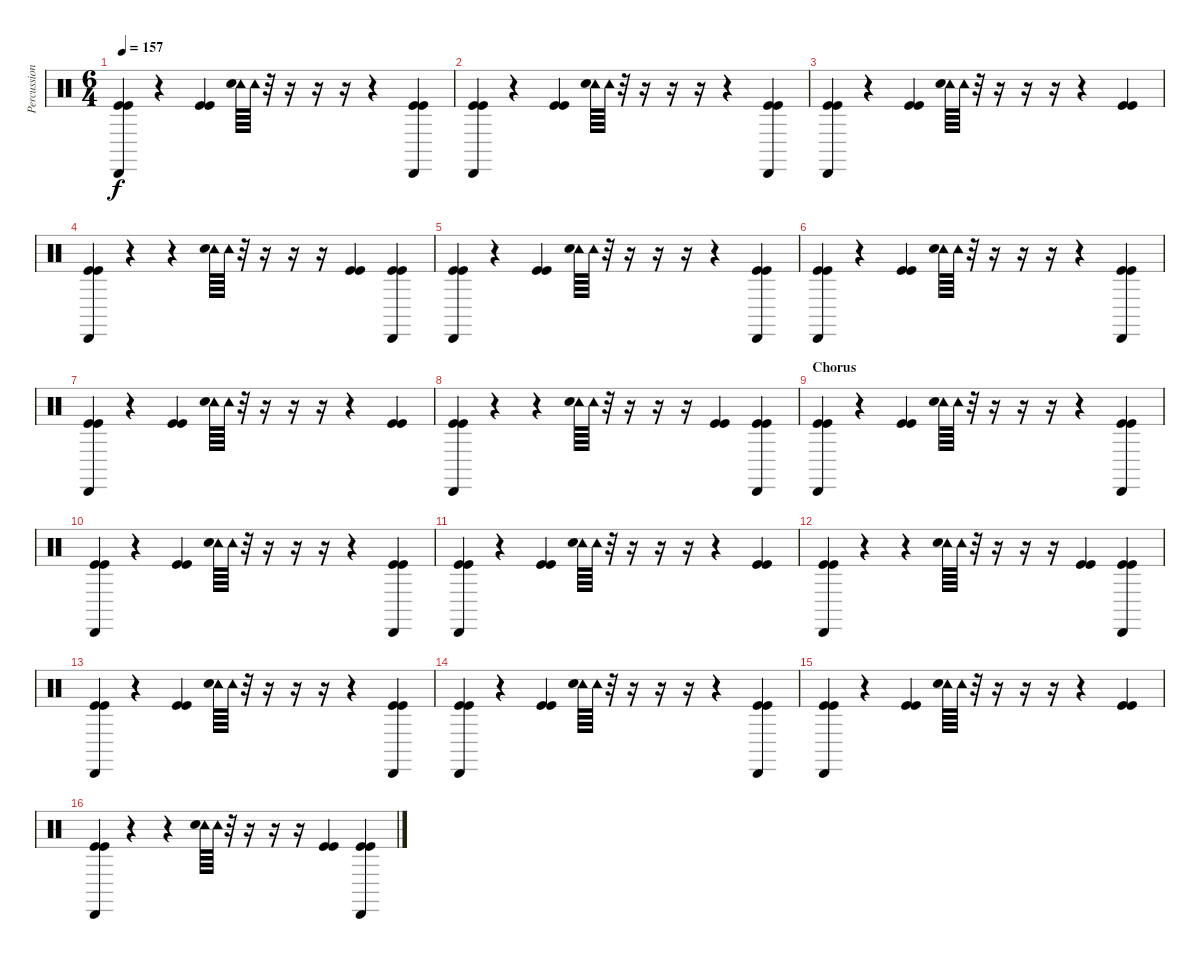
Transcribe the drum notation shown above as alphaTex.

\track ("Percussions" "Percussion") {instrument percussion}
\staff {score}
\articulation defaults
\ts (6 4)
\tempo 157
\clef neutral
\ks c
("Cabasa (hit)" "Kick (hit)" "Kick (hit)").4{dy f} r.4 ("Kick (hit)" "Kick (hit)").4 ("Tambourine (hit)" "Snare (hit) 2").64 "Tambourine (hit)".64 r.32 r.16 r.16 r.16 r.4 ("Cabasa (hit)" "Kick (hit)" "Kick (hit)").4 |
("Cabasa (hit)" "Kick (hit)" "Kick (hit)").4 r.4 ("Kick (hit)" "Kick (hit)").4 ("Tambourine (hit)" "Snare (hit) 2").64 "Tambourine (hit)".64 r.32 r.16 r.16 r.16 r.4 ("Cabasa (hit)" "Kick (hit)" "Kick (hit)").4 |
("Cabasa (hit)" "Kick (hit)" "Kick (hit)").4 r.4 ("Kick (hit)" "Kick (hit)").4 ("Tambourine (hit)" "Snare (hit) 2").64 "Tambourine (hit)".64 r.32 r.16 r.16 r.16 r.4 ("Kick (hit)" "Kick (hit)").4 |
("Cabasa (hit)" "Kick (hit)" "Kick (hit)").4 r.4 r.4 ("Tambourine (hit)" "Snare (hit) 2").64 "Tambourine (hit)".64 r.32 r.16 r.16 r.16 ("Kick (hit)" "Kick (hit)").4 ("Cabasa (hit)" "Kick (hit)" "Kick (hit)").4 |
("Cabasa (hit)" "Kick (hit)" "Kick (hit)").4 r.4 ("Kick (hit)" "Kick (hit)").4 ("Tambourine (hit)" "Snare (hit) 2").64 "Tambourine (hit)".64 r.32 r.16 r.16 r.16 r.4 ("Cabasa (hit)" "Kick (hit)" "Kick (hit)").4 |
("Cabasa (hit)" "Kick (hit)" "Kick (hit)").4 r.4 ("Kick (hit)" "Kick (hit)").4 ("Tambourine (hit)" "Snare (hit) 2").64 "Tambourine (hit)".64 r.32 r.16 r.16 r.16 r.4 ("Cabasa (hit)" "Kick (hit)" "Kick (hit)").4 |
("Cabasa (hit)" "Kick (hit)" "Kick (hit)").4 r.4 ("Kick (hit)" "Kick (hit)").4 ("Tambourine (hit)" "Snare (hit) 2").64 "Tambourine (hit)".64 r.32 r.16 r.16 r.16 r.4 ("Kick (hit)" "Kick (hit)").4 |
("Cabasa (hit)" "Kick (hit)" "Kick (hit)").4 r.4 r.4 ("Tambourine (hit)" "Snare (hit) 2").64 "Tambourine (hit)".64 r.32 r.16 r.16 r.16 ("Kick (hit)" "Kick (hit)").4 ("Cabasa (hit)" "Kick (hit)" "Kick (hit)").4 |
\section ("" "Chorus")
("Cabasa (hit)" "Kick (hit)" "Kick (hit)").4 r.4 ("Kick (hit)" "Kick (hit)").4 ("Tambourine (hit)" "Snare (hit) 2").64 "Tambourine (hit)".64 r.32 r.16 r.16 r.16 r.4 ("Cabasa (hit)" "Kick (hit)" "Kick (hit)").4 |
("Cabasa (hit)" "Kick (hit)" "Kick (hit)").4 r.4 ("Kick (hit)" "Kick (hit)").4 ("Tambourine (hit)" "Snare (hit) 2").64 "Tambourine (hit)".64 r.32 r.16 r.16 r.16 r.4 ("Cabasa (hit)" "Kick (hit)" "Kick (hit)").4 |
("Cabasa (hit)" "Kick (hit)" "Kick (hit)").4 r.4 ("Kick (hit)" "Kick (hit)").4 ("Tambourine (hit)" "Snare (hit) 2").64 "Tambourine (hit)".64 r.32 r.16 r.16 r.16 r.4 ("Kick (hit)" "Kick (hit)").4 |
("Cabasa (hit)" "Kick (hit)" "Kick (hit)").4 r.4 r.4 ("Tambourine (hit)" "Snare (hit) 2").64 "Tambourine (hit)".64 r.32 r.16 r.16 r.16 ("Kick (hit)" "Kick (hit)").4 ("Cabasa (hit)" "Kick (hit)" "Kick (hit)").4 |
("Cabasa (hit)" "Kick (hit)" "Kick (hit)").4 r.4 ("Kick (hit)" "Kick (hit)").4 ("Tambourine (hit)" "Snare (hit) 2").64 "Tambourine (hit)".64 r.32 r.16 r.16 r.16 r.4 ("Cabasa (hit)" "Kick (hit)" "Kick (hit)").4 |
("Cabasa (hit)" "Kick (hit)" "Kick (hit)").4 r.4 ("Kick (hit)" "Kick (hit)").4 ("Tambourine (hit)" "Snare (hit) 2").64 "Tambourine (hit)".64 r.32 r.16 r.16 r.16 r.4 ("Cabasa (hit)" "Kick (hit)" "Kick (hit)").4 |
("Cabasa (hit)" "Kick (hit)" "Kick (hit)").4 r.4 ("Kick (hit)" "Kick (hit)").4 ("Tambourine (hit)" "Snare (hit) 2").64 "Tambourine (hit)".64 r.32 r.16 r.16 r.16 r.4 ("Kick (hit)" "Kick (hit)").4 |
("Cabasa (hit)" "Kick (hit)" "Kick (hit)").4 r.4 r.4 ("Tambourine (hit)" "Snare (hit) 2").64 "Tambourine (hit)".64 r.32 r.16 r.16 r.16 ("Kick (hit)" "Kick (hit)").4 ("Cabasa (hit)" "Kick (hit)" "Kick (hit)").4
